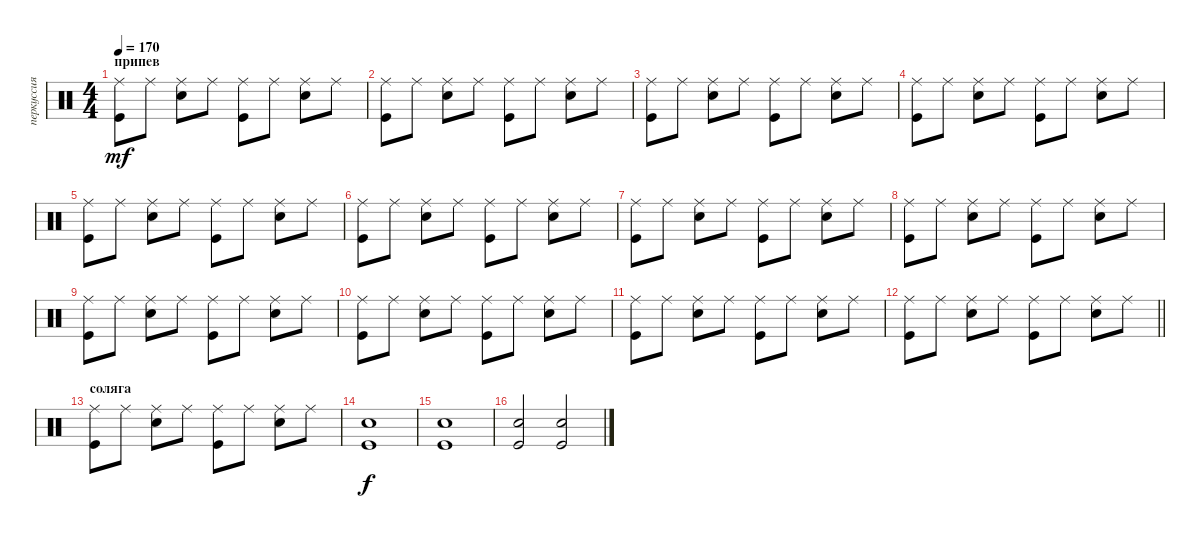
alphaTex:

\track ("перкуссия" "перкуссия") {instrument percussion}
\staff {score}
\articulation defaults
\ts (4 4)
\section ("" "припев")
\tempo 170
\clef neutral
\ks c
("Ride (middle)" "Kick (hit)").8{dy mf} "Ride (middle)".8 ("Ride (middle)" "Snare (hit) 2").8 "Ride (middle)".8 ("Ride (middle)" "Kick (hit)").8 "Ride (middle)".8 ("Ride (middle)" "Snare (hit) 2").8 "Ride (middle)".8 |
("Ride (middle)" "Kick (hit)").8 "Ride (middle)".8 ("Ride (middle)" "Snare (hit) 2").8 "Ride (middle)".8 ("Ride (middle)" "Kick (hit)").8 "Ride (middle)".8 ("Ride (middle)" "Snare (hit) 2").8 "Ride (middle)".8 |
("Ride (middle)" "Kick (hit)").8 "Ride (middle)".8 ("Ride (middle)" "Snare (hit) 2").8 "Ride (middle)".8 ("Ride (middle)" "Kick (hit)").8 "Ride (middle)".8 ("Ride (middle)" "Snare (hit) 2").8 "Ride (middle)".8 |
("Ride (middle)" "Kick (hit)").8 "Ride (middle)".8 ("Ride (middle)" "Snare (hit) 2").8 "Ride (middle)".8 ("Ride (middle)" "Kick (hit)").8 "Ride (middle)".8 ("Ride (middle)" "Snare (hit) 2").8 "Ride (middle)".8 |
("Ride (middle)" "Kick (hit)").8 "Ride (middle)".8 ("Ride (middle)" "Snare (hit) 2").8 "Ride (middle)".8 ("Ride (middle)" "Kick (hit)").8 "Ride (middle)".8 ("Ride (middle)" "Snare (hit) 2").8 "Ride (middle)".8 |
("Ride (middle)" "Kick (hit)").8 "Ride (middle)".8 ("Ride (middle)" "Snare (hit) 2").8 "Ride (middle)".8 ("Ride (middle)" "Kick (hit)").8 "Ride (middle)".8 ("Ride (middle)" "Snare (hit) 2").8 "Ride (middle)".8 |
("Ride (middle)" "Kick (hit)").8 "Ride (middle)".8 ("Ride (middle)" "Snare (hit) 2").8 "Ride (middle)".8 ("Ride (middle)" "Kick (hit)").8 "Ride (middle)".8 ("Ride (middle)" "Snare (hit) 2").8 "Ride (middle)".8 |
("Ride (middle)" "Kick (hit)").8 "Ride (middle)".8 ("Ride (middle)" "Snare (hit) 2").8 "Ride (middle)".8 ("Ride (middle)" "Kick (hit)").8 "Ride (middle)".8 ("Ride (middle)" "Snare (hit) 2").8 "Ride (middle)".8 |
("Ride (middle)" "Kick (hit)").8 "Ride (middle)".8 ("Ride (middle)" "Snare (hit) 2").8 "Ride (middle)".8 ("Ride (middle)" "Kick (hit)").8 "Ride (middle)".8 ("Ride (middle)" "Snare (hit) 2").8 "Ride (middle)".8 |
("Ride (middle)" "Kick (hit)").8 "Ride (middle)".8 ("Ride (middle)" "Snare (hit) 2").8 "Ride (middle)".8 ("Ride (middle)" "Kick (hit)").8 "Ride (middle)".8 ("Ride (middle)" "Snare (hit) 2").8 "Ride (middle)".8 |
("Ride (middle)" "Kick (hit)").8 "Ride (middle)".8 ("Ride (middle)" "Snare (hit) 2").8 "Ride (middle)".8 ("Ride (middle)" "Kick (hit)").8 "Ride (middle)".8 ("Ride (middle)" "Snare (hit) 2").8 "Ride (middle)".8 |
\barLineRight lightlight
("Ride (middle)" "Kick (hit)").8 "Ride (middle)".8 ("Ride (middle)" "Snare (hit) 2").8 "Ride (middle)".8 ("Ride (middle)" "Kick (hit)").8 "Ride (middle)".8 ("Ride (middle)" "Snare (hit) 2").8 "Ride (middle)".8 |
\section ("" "соляга")
("Ride (middle)" "Kick (hit)").8 "Ride (middle)".8 ("Ride (middle)" "Snare (hit) 2").8 "Ride (middle)".8 ("Ride (middle)" "Kick (hit)").8 "Ride (middle)".8 ("Ride (middle)" "Snare (hit) 2").8 "Ride (middle)".8 |
("Snare (hit) 2" "Kick (hit)").1{dy f} |
("Snare (hit) 2" "Kick (hit)").1 |
("Snare (hit) 2" "Kick (hit)").2 ("Snare (hit) 2" "Kick (hit)").2
